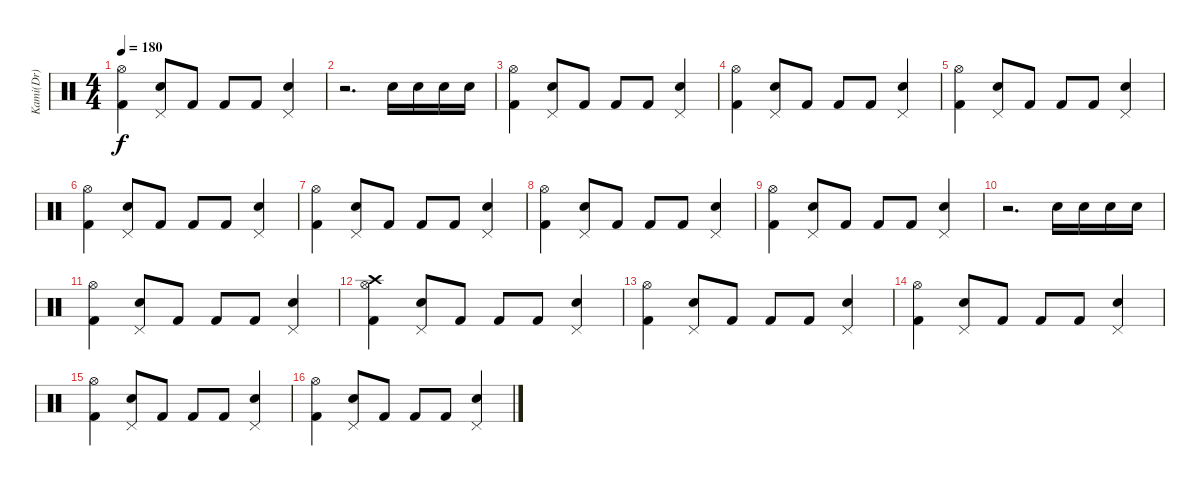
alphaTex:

\track ("Kami(Dr)" "Kami(Dr)") {instrument percussion}
\staff {score}
\articulation defaults
\ts (4 4)
\tempo 180
\clef neutral
\ks c
("Kick (hit) 2" "Hi-Hat (open)").4{dy f} ("Electric Snare (hit)" "Pedal Hi-Hat (hit)").8 "Kick (hit) 2".8 "Kick (hit) 2".8 "Kick (hit) 2".8 ("Electric Snare (hit)" "Pedal Hi-Hat (hit)").4 |
r.2{d} "Electric Snare (hit)".16 "Electric Snare (hit)".16 "Electric Snare (hit)".16 "Electric Snare (hit)".16 |
("Kick (hit) 2" "Hi-Hat (open)").4 ("Electric Snare (hit)" "Pedal Hi-Hat (hit)").8 "Kick (hit) 2".8 "Kick (hit) 2".8 "Kick (hit) 2".8 ("Electric Snare (hit)" "Pedal Hi-Hat (hit)").4 |
("Kick (hit) 2" "Hi-Hat (open)").4 ("Electric Snare (hit)" "Pedal Hi-Hat (hit)").8 "Kick (hit) 2".8 "Kick (hit) 2".8 "Kick (hit) 2".8 ("Electric Snare (hit)" "Pedal Hi-Hat (hit)").4 |
("Kick (hit) 2" "Hi-Hat (open)").4 ("Electric Snare (hit)" "Pedal Hi-Hat (hit)").8 "Kick (hit) 2".8 "Kick (hit) 2".8 "Kick (hit) 2".8 ("Electric Snare (hit)" "Pedal Hi-Hat (hit)").4 |
("Kick (hit) 2" "Hi-Hat (open)").4 ("Electric Snare (hit)" "Pedal Hi-Hat (hit)").8 "Kick (hit) 2".8 "Kick (hit) 2".8 "Kick (hit) 2".8 ("Electric Snare (hit)" "Pedal Hi-Hat (hit)").4 |
("Kick (hit) 2" "Hi-Hat (open)").4 ("Electric Snare (hit)" "Pedal Hi-Hat (hit)").8 "Kick (hit) 2".8 "Kick (hit) 2".8 "Kick (hit) 2".8 ("Electric Snare (hit)" "Pedal Hi-Hat (hit)").4 |
("Kick (hit) 2" "Hi-Hat (open)").4 ("Electric Snare (hit)" "Pedal Hi-Hat (hit)").8 "Kick (hit) 2".8 "Kick (hit) 2".8 "Kick (hit) 2".8 ("Electric Snare (hit)" "Pedal Hi-Hat (hit)").4 |
("Kick (hit) 2" "Hi-Hat (open)").4 ("Electric Snare (hit)" "Pedal Hi-Hat (hit)").8 "Kick (hit) 2".8 "Kick (hit) 2".8 "Kick (hit) 2".8 ("Electric Snare (hit)" "Pedal Hi-Hat (hit)").4 |
r.2{d} "Electric Snare (hit)".16 "Electric Snare (hit)".16 "Electric Snare (hit)".16 "Electric Snare (hit)".16 |
("Kick (hit) 2" "Hi-Hat (open)").4 ("Electric Snare (hit)" "Pedal Hi-Hat (hit)").8 "Kick (hit) 2".8 "Kick (hit) 2".8 "Kick (hit) 2".8 ("Electric Snare (hit)" "Pedal Hi-Hat (hit)").4 |
("Kick (hit) 2" "Hi-Hat (open)" "Crash high (hit)").4 ("Electric Snare (hit)" "Pedal Hi-Hat (hit)").8 "Kick (hit) 2".8 "Kick (hit) 2".8 "Kick (hit) 2".8 ("Electric Snare (hit)" "Pedal Hi-Hat (hit)").4 |
("Kick (hit) 2" "Hi-Hat (open)").4 ("Electric Snare (hit)" "Pedal Hi-Hat (hit)").8 "Kick (hit) 2".8 "Kick (hit) 2".8 "Kick (hit) 2".8 ("Electric Snare (hit)" "Pedal Hi-Hat (hit)").4 |
("Kick (hit) 2" "Hi-Hat (open)").4 ("Electric Snare (hit)" "Pedal Hi-Hat (hit)").8 "Kick (hit) 2".8 "Kick (hit) 2".8 "Kick (hit) 2".8 ("Electric Snare (hit)" "Pedal Hi-Hat (hit)").4 |
("Kick (hit) 2" "Hi-Hat (open)").4 ("Electric Snare (hit)" "Pedal Hi-Hat (hit)").8 "Kick (hit) 2".8 "Kick (hit) 2".8 "Kick (hit) 2".8 ("Electric Snare (hit)" "Pedal Hi-Hat (hit)").4 |
("Kick (hit) 2" "Hi-Hat (open)").4 ("Electric Snare (hit)" "Pedal Hi-Hat (hit)").8 "Kick (hit) 2".8 "Kick (hit) 2".8 "Kick (hit) 2".8 ("Electric Snare (hit)" "Pedal Hi-Hat (hit)").4
